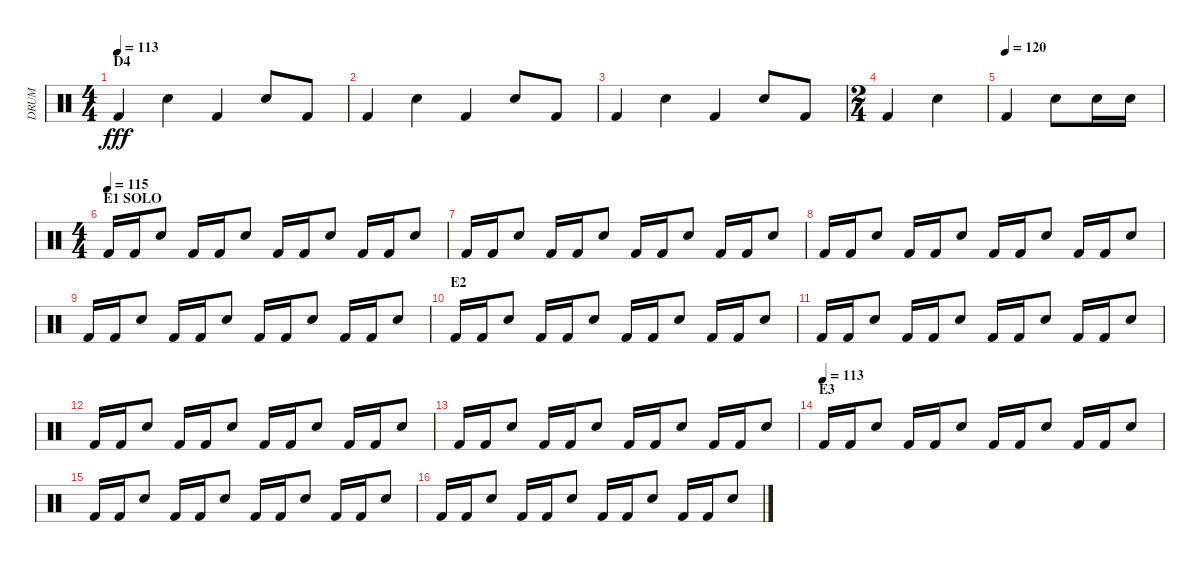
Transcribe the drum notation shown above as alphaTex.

\track ("DRUM" "DRUM") {instrument percussion}
\staff {score}
\articulation defaults
\ts (4 4)
\section ("" "D4")
\tempo 113
\clef neutral
\ks c "Kick (hit) 2".4{dy fff} "Electric Snare (hit)".4 "Kick (hit) 2".4 "Electric Snare (hit)".8 "Kick (hit) 2".8
|
"Kick (hit) 2".4 "Electric Snare (hit)".4 "Kick (hit) 2".4 "Electric Snare (hit)".8 "Kick (hit) 2".8 |
"Kick (hit) 2".4 "Electric Snare (hit)".4 "Kick (hit) 2".4 "Electric Snare (hit)".8 "Kick (hit) 2".8 |
\ts (2 4)
"Kick (hit) 2".4 "Electric Snare (hit)".4 |
\tempo (120)
"Kick (hit) 2".4 "Electric Snare (hit)".8 "Electric Snare (hit)".16 "Electric Snare (hit)".16 |
\ts (4 4)
\section ("" "E1 SOLO")
\tempo (115)
"Kick (hit) 2".16 "Kick (hit) 2".16 "Electric Snare (hit)".8 "Kick (hit) 2".16 "Kick (hit) 2".16 "Electric Snare (hit)".8 "Kick (hit) 2".16 "Kick (hit) 2".16 "Electric Snare (hit)".8 "Kick (hit) 2".16 "Kick (hit) 2".16 "Electric Snare (hit)".8 |
"Kick (hit) 2".16 "Kick (hit) 2".16 "Electric Snare (hit)".8 "Kick (hit) 2".16 "Kick (hit) 2".16 "Electric Snare (hit)".8 "Kick (hit) 2".16 "Kick (hit) 2".16 "Electric Snare (hit)".8 "Kick (hit) 2".16 "Kick (hit) 2".16 "Electric Snare (hit)".8 |
"Kick (hit) 2".16 "Kick (hit) 2".16 "Electric Snare (hit)".8 "Kick (hit) 2".16 "Kick (hit) 2".16 "Electric Snare (hit)".8 "Kick (hit) 2".16 "Kick (hit) 2".16 "Electric Snare (hit)".8 "Kick (hit) 2".16 "Kick (hit) 2".16 "Electric Snare (hit)".8 |
"Kick (hit) 2".16 "Kick (hit) 2".16 "Electric Snare (hit)".8 "Kick (hit) 2".16 "Kick (hit) 2".16 "Electric Snare (hit)".8 "Kick (hit) 2".16 "Kick (hit) 2".16 "Electric Snare (hit)".8 "Kick (hit) 2".16 "Kick (hit) 2".16 "Electric Snare (hit)".8 |
\section ("" "E2")
"Kick (hit) 2".16 "Kick (hit) 2".16 "Electric Snare (hit)".8 "Kick (hit) 2".16 "Kick (hit) 2".16 "Electric Snare (hit)".8 "Kick (hit) 2".16 "Kick (hit) 2".16 "Electric Snare (hit)".8 "Kick (hit) 2".16 "Kick (hit) 2".16 "Electric Snare (hit)".8 |
"Kick (hit) 2".16 "Kick (hit) 2".16 "Electric Snare (hit)".8 "Kick (hit) 2".16 "Kick (hit) 2".16 "Electric Snare (hit)".8 "Kick (hit) 2".16 "Kick (hit) 2".16 "Electric Snare (hit)".8 "Kick (hit) 2".16 "Kick (hit) 2".16 "Electric Snare (hit)".8 |
"Kick (hit) 2".16 "Kick (hit) 2".16 "Electric Snare (hit)".8 "Kick (hit) 2".16 "Kick (hit) 2".16 "Electric Snare (hit)".8 "Kick (hit) 2".16 "Kick (hit) 2".16 "Electric Snare (hit)".8 "Kick (hit) 2".16 "Kick (hit) 2".16 "Electric Snare (hit)".8 |
"Kick (hit) 2".16 "Kick (hit) 2".16 "Electric Snare (hit)".8 "Kick (hit) 2".16 "Kick (hit) 2".16 "Electric Snare (hit)".8 "Kick (hit) 2".16 "Kick (hit) 2".16 "Electric Snare (hit)".8 "Kick (hit) 2".16 "Kick (hit) 2".16 "Electric Snare (hit)".8 |
\section ("" "E3")
\tempo (113)
"Kick (hit) 2".16 "Kick (hit) 2".16 "Electric Snare (hit)".8 "Kick (hit) 2".16 "Kick (hit) 2".16 "Electric Snare (hit)".8 "Kick (hit) 2".16 "Kick (hit) 2".16 "Electric Snare (hit)".8 "Kick (hit) 2".16 "Kick (hit) 2".16 "Electric Snare (hit)".8 |
"Kick (hit) 2".16 "Kick (hit) 2".16 "Electric Snare (hit)".8 "Kick (hit) 2".16 "Kick (hit) 2".16 "Electric Snare (hit)".8 "Kick (hit) 2".16 "Kick (hit) 2".16 "Electric Snare (hit)".8 "Kick (hit) 2".16 "Kick (hit) 2".16 "Electric Snare (hit)".8 |
"Kick (hit) 2".16 "Kick (hit) 2".16 "Electric Snare (hit)".8 "Kick (hit) 2".16 "Kick (hit) 2".16 "Electric Snare (hit)".8 "Kick (hit) 2".16 "Kick (hit) 2".16 "Electric Snare (hit)".8 "Kick (hit) 2".16 "Kick (hit) 2".16 "Electric Snare (hit)".8
